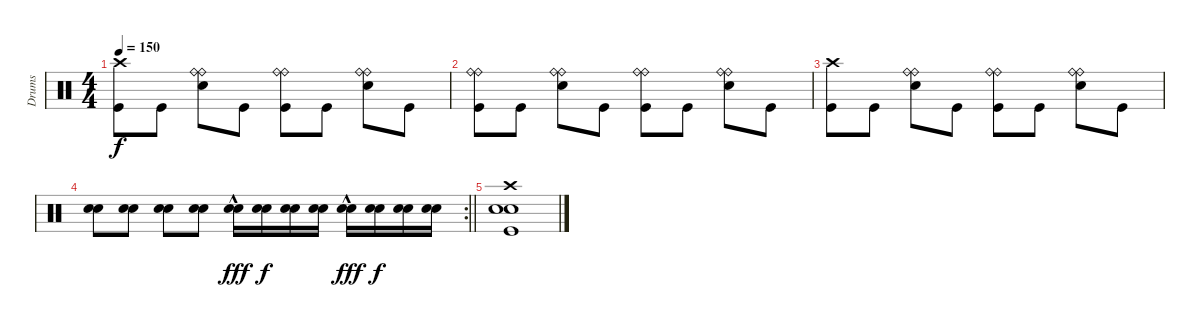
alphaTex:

\track ("Drums" "Drums") {instrument percussion}
\staff {score}
\articulation defaults
\ts (4 4)
\tempo 150
\clef neutral
\ks c
("Crash high (hit)" "Kick (hit)").8{dy f} "Kick (hit)".8 ("Electric Snare (hit)" "Ride (bell)" "Ride (bell)").8 "Kick (hit)".8 ("Kick (hit)" "Ride (bell)" "Ride (bell)").8 "Kick (hit)".8 ("Electric Snare (hit)" "Ride (bell)" "Ride (bell)").8 "Kick (hit)".8 |
("Kick (hit)" "Ride (bell)" "Ride (bell)").8 "Kick (hit)".8 ("Electric Snare (hit)" "Ride (bell)" "Ride (bell)").8 "Kick (hit)".8 ("Kick (hit)" "Ride (bell)" "Ride (bell)").8 "Kick (hit)".8 ("Electric Snare (hit)" "Ride (bell)" "Ride (bell)").8 "Kick (hit)".8 |
("Crash high (hit)" "Kick (hit)").8 "Kick (hit)".8 ("Electric Snare (hit)" "Ride (bell)" "Ride (bell)").8 "Kick (hit)".8 ("Kick (hit)" "Ride (bell)" "Ride (bell)").8 "Kick (hit)".8 ("Electric Snare (hit)" "Ride (bell)" "Ride (bell)").8 "Kick (hit)".8 |
\rc 2
\barLineRight lightlight
("Electric Snare (hit)" "Electric Snare (hit)").8 ("Electric Snare (hit)" "Electric Snare (hit)").8 ("Electric Snare (hit)" "Electric Snare (hit)").8 ("Electric Snare (hit)" "Electric Snare (hit)").8 ("Electric Snare (hit)"{hac} "Electric Snare (hit)"{hac}).16{dy fff} ("Electric Snare (hit)" "Electric Snare (hit)").16{dy f} ("Electric Snare (hit)" "Electric Snare (hit)").16 ("Electric Snare (hit)" "Electric Snare (hit)").16 ("Electric Snare (hit)"{hac} "Electric Snare (hit)"{hac}).16{dy fff} ("Electric Snare (hit)" "Electric Snare (hit)").16{dy f} ("Electric Snare (hit)" "Electric Snare (hit)").16 ("Electric Snare (hit)" "Electric Snare (hit)").16 |
("Crash high (hit)" "Electric Snare (hit)" "Electric Snare (hit)" "Kick (hit)").1
